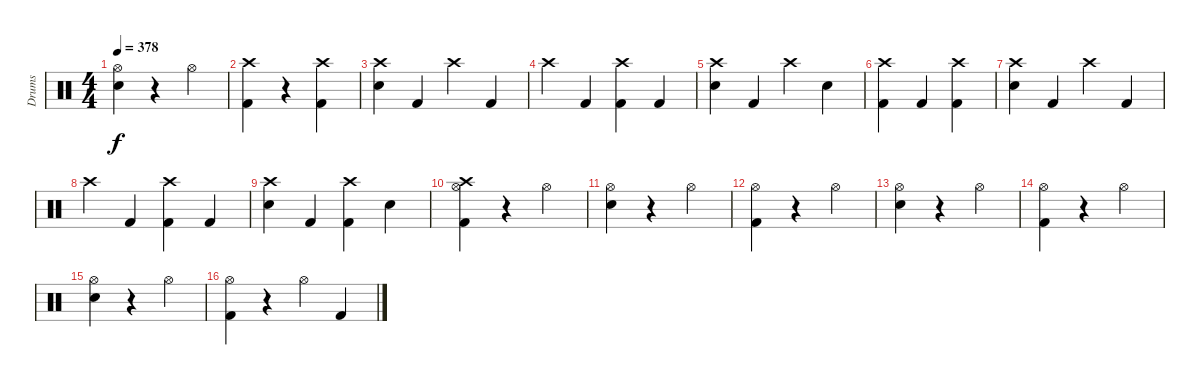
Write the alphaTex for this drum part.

\track ("Drums" "Drums") {instrument percussion}
\staff {score}
\articulation defaults
\ts (4 4)
\tempo 378
\clef neutral
\ks c
("Hi-Hat (open)" "Electric Snare (hit)").4{dy f} r.4 "Hi-Hat (open)".4 |
("Crash high (hit)" "Kick (hit) 2").4 r.4 ("Crash high (hit)" "Kick (hit) 2").4 |
("Crash high (hit)" "Electric Snare (hit)").4 "Kick (hit) 2".4 "Crash high (hit)".4 "Kick (hit) 2".4 |
"Crash high (hit)".4 "Kick (hit) 2".4 ("Crash high (hit)" "Kick (hit) 2").4 "Kick (hit) 2".4 |
("Crash high (hit)" "Electric Snare (hit)").4 "Kick (hit) 2".4 "Crash high (hit)".4 "Electric Snare (hit)".4 |
("Crash high (hit)" "Kick (hit) 2").4 "Kick (hit) 2".4 ("Crash high (hit)" "Kick (hit) 2").4 |
("Crash high (hit)" "Electric Snare (hit)").4 "Kick (hit) 2".4 "Crash high (hit)".4 "Kick (hit) 2".4 |
"Crash high (hit)".4 "Kick (hit) 2".4 ("Crash high (hit)" "Kick (hit) 2").4 "Kick (hit) 2".4 |
("Crash high (hit)" "Electric Snare (hit)").4 "Kick (hit) 2".4 ("Crash high (hit)" "Kick (hit) 2").4 "Electric Snare (hit)".4 |
("Crash high (hit)" "Hi-Hat (open)" "Kick (hit) 2").4 r.4 "Hi-Hat (open)".4 |
("Hi-Hat (open)" "Electric Snare (hit)").4 r.4 "Hi-Hat (open)".4 |
("Hi-Hat (open)" "Kick (hit) 2").4 r.4 "Hi-Hat (open)".4 |
("Hi-Hat (open)" "Electric Snare (hit)").4 r.4 "Hi-Hat (open)".4 |
("Hi-Hat (open)" "Kick (hit) 2").4 r.4 "Hi-Hat (open)".4 |
("Hi-Hat (open)" "Electric Snare (hit)").4 r.4 "Hi-Hat (open)".4 |
("Hi-Hat (open)" "Kick (hit) 2").4 r.4 "Hi-Hat (open)".4 "Kick (hit) 2".4
